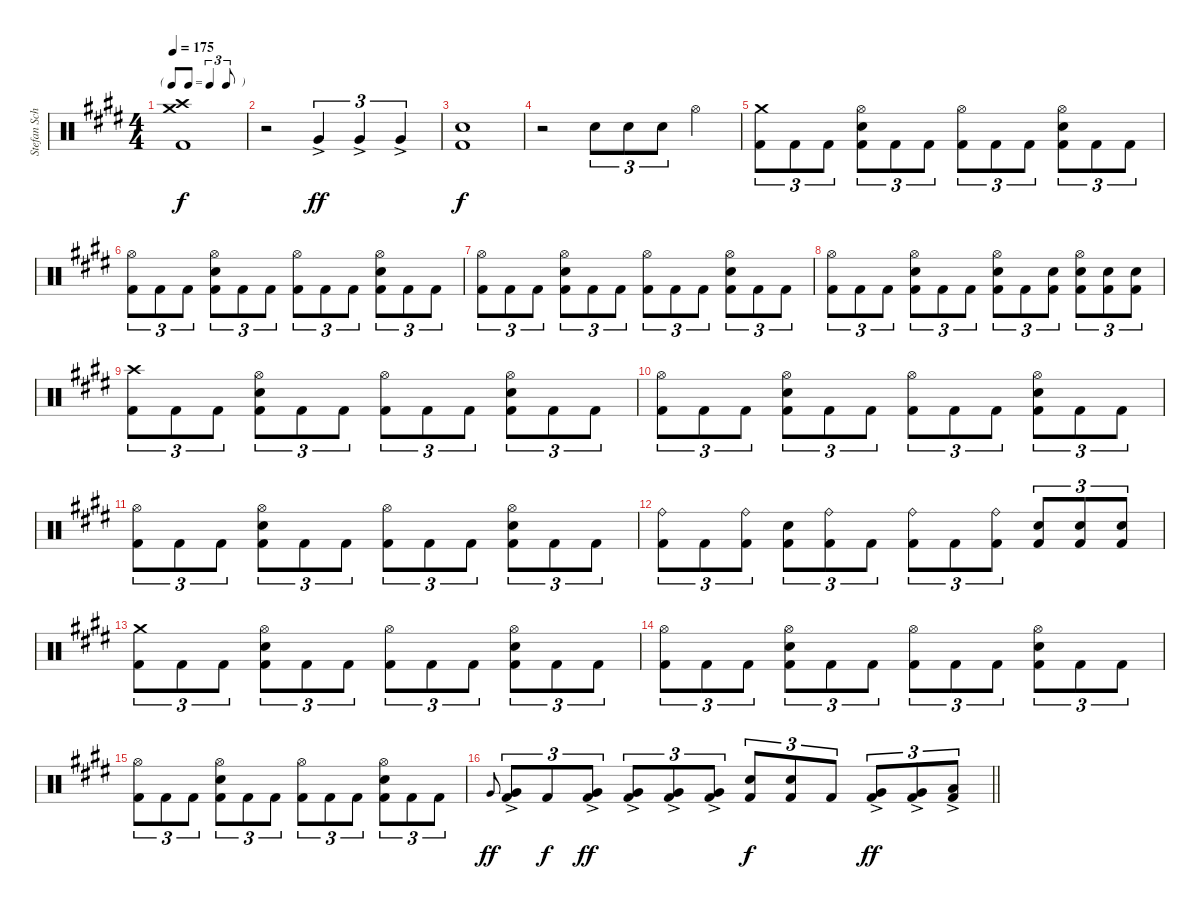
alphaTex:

\track ("Stefan Schwarzmann" "Stefan Sch") {instrument percussion}
\staff {score}
\articulation defaults
\ts (4 4)
\tf triplet8th
\tempo 175
\clef neutral
\ks c#minor
("Crash high (hit)" "Crash medium (hit)" "Kick (hit) 2").1{dy f} |
r.2 "Very Low Tom (hit)"{ac}.4{tu (3 2) dy ff} "Very Low Tom (hit)"{ac}.4{tu (3 2)} "Very Low Tom (hit)"{ac}.4{tu (3 2)} |
("Snare (hit) 2" "Kick (hit) 2").1{dy f} |
r.2 "Snare (hit) 2".8{tu (3 2)} "Snare (hit) 2".8{tu (3 2)} "Snare (hit) 2".8{tu (3 2)} "Hi-Hat (open)".4 |
("Crash medium (hit)" "Kick (hit) 2").8{tu (3 2)} "Kick (hit) 2".8{tu (3 2)} "Kick (hit) 2".8{tu (3 2)} ("Hi-Hat (open)" "Snare (hit) 2" "Kick (hit) 2").8{tu (3 2)} "Kick (hit) 2".8{tu (3 2)} "Kick (hit) 2".8{tu (3 2)} ("Hi-Hat (open)" "Kick (hit) 2").8{tu (3 2)} "Kick (hit) 2".8{tu (3 2)} "Kick (hit) 2".8{tu (3 2)} ("Hi-Hat (open)" "Snare (hit) 2" "Kick (hit) 2").8{tu (3 2)} "Kick (hit) 2".8{tu (3 2)} "Kick (hit) 2".8{tu (3 2)} |
("Hi-Hat (open)" "Kick (hit) 2").8{tu (3 2)} "Kick (hit) 2".8{tu (3 2)} "Kick (hit) 2".8{tu (3 2)} ("Hi-Hat (open)" "Snare (hit) 2" "Kick (hit) 2").8{tu (3 2)} "Kick (hit) 2".8{tu (3 2)} "Kick (hit) 2".8{tu (3 2)} ("Hi-Hat (open)" "Kick (hit) 2").8{tu (3 2)} "Kick (hit) 2".8{tu (3 2)} "Kick (hit) 2".8{tu (3 2)} ("Hi-Hat (open)" "Snare (hit) 2" "Kick (hit) 2").8{tu (3 2)} "Kick (hit) 2".8{tu (3 2)} "Kick (hit) 2".8{tu (3 2)} |
("Hi-Hat (open)" "Kick (hit) 2").8{tu (3 2)} "Kick (hit) 2".8{tu (3 2)} "Kick (hit) 2".8{tu (3 2)} ("Hi-Hat (open)" "Snare (hit) 2" "Kick (hit) 2").8{tu (3 2)} "Kick (hit) 2".8{tu (3 2)} "Kick (hit) 2".8{tu (3 2)} ("Hi-Hat (open)" "Kick (hit) 2").8{tu (3 2)} "Kick (hit) 2".8{tu (3 2)} "Kick (hit) 2".8{tu (3 2)} ("Hi-Hat (open)" "Snare (hit) 2" "Kick (hit) 2").8{tu (3 2)} "Kick (hit) 2".8{tu (3 2)} "Kick (hit) 2".8{tu (3 2)} |
("Hi-Hat (open)" "Kick (hit) 2").8{tu (3 2)} "Kick (hit) 2".8{tu (3 2)} "Kick (hit) 2".8{tu (3 2)} ("Hi-Hat (open)" "Snare (hit) 2" "Kick (hit) 2").8{tu (3 2)} "Kick (hit) 2".8{tu (3 2)} "Kick (hit) 2".8{tu (3 2)} ("Hi-Hat (open)" "Snare (hit) 2" "Kick (hit) 2").8{tu (3 2)} "Kick (hit) 2".8{tu (3 2)} ("Snare (hit) 2" "Kick (hit) 2").8{tu (3 2)} ("Hi-Hat (open)" "Snare (hit) 2" "Kick (hit) 2").8{tu (3 2)} ("Snare (hit) 2" "Kick (hit) 2").8{tu (3 2)} ("Snare (hit) 2" "Kick (hit) 2").8{tu (3 2)} |
("Crash high (hit)" "Kick (hit) 2").8{tu (3 2)} "Kick (hit) 2".8{tu (3 2)} "Kick (hit) 2".8{tu (3 2)} ("Hi-Hat (open)" "Snare (hit) 2" "Kick (hit) 2").8{tu (3 2)} "Kick (hit) 2".8{tu (3 2)} "Kick (hit) 2".8{tu (3 2)} ("Hi-Hat (open)" "Kick (hit) 2").8{tu (3 2)} "Kick (hit) 2".8{tu (3 2)} "Kick (hit) 2".8{tu (3 2)} ("Hi-Hat (open)" "Snare (hit) 2" "Kick (hit) 2").8{tu (3 2)} "Kick (hit) 2".8{tu (3 2)} "Kick (hit) 2".8{tu (3 2)} |
("Hi-Hat (open)" "Kick (hit) 2").8{tu (3 2)} "Kick (hit) 2".8{tu (3 2)} "Kick (hit) 2".8{tu (3 2)} ("Hi-Hat (open)" "Snare (hit) 2" "Kick (hit) 2").8{tu (3 2)} "Kick (hit) 2".8{tu (3 2)} "Kick (hit) 2".8{tu (3 2)} ("Hi-Hat (open)" "Kick (hit) 2").8{tu (3 2)} "Kick (hit) 2".8{tu (3 2)} "Kick (hit) 2".8{tu (3 2)} ("Hi-Hat (open)" "Snare (hit) 2" "Kick (hit) 2").8{tu (3 2)} "Kick (hit) 2".8{tu (3 2)} "Kick (hit) 2".8{tu (3 2)} |
("Hi-Hat (open)" "Kick (hit) 2").8{tu (3 2)} "Kick (hit) 2".8{tu (3 2)} "Kick (hit) 2".8{tu (3 2)} ("Hi-Hat (open)" "Snare (hit) 2" "Kick (hit) 2").8{tu (3 2)} "Kick (hit) 2".8{tu (3 2)} "Kick (hit) 2".8{tu (3 2)} ("Hi-Hat (open)" "Kick (hit) 2").8{tu (3 2)} "Kick (hit) 2".8{tu (3 2)} "Kick (hit) 2".8{tu (3 2)} ("Hi-Hat (open)" "Snare (hit) 2" "Kick (hit) 2").8{tu (3 2)} "Kick (hit) 2".8{tu (3 2)} "Kick (hit) 2".8{tu (3 2)} |
("Ride (bell)" "Kick (hit) 2").8{tu (3 2)} "Kick (hit) 2".8{tu (3 2)} ("Ride (bell)" "Kick (hit) 2").8{tu (3 2)} ("Snare (hit) 2" "Kick (hit) 2").8{tu (3 2)} ("Ride (bell)" "Kick (hit) 2").8{tu (3 2)} "Kick (hit) 2".8{tu (3 2)} ("Ride (bell)" "Kick (hit) 2").8{tu (3 2)} "Kick (hit) 2".8{tu (3 2)} ("Ride (bell)" "Kick (hit) 2").8{tu (3 2)} ("Snare (hit) 2" "Kick (hit) 2").8{tu (3 2)} ("Snare (hit) 2" "Kick (hit) 2").8{tu (3 2)} ("Snare (hit) 2" "Kick (hit) 2").8{tu (3 2)} |
("Crash medium (hit)" "Kick (hit) 2").8{tu (3 2)} "Kick (hit) 2".8{tu (3 2)} "Kick (hit) 2".8{tu (3 2)} ("Hi-Hat (open)" "Snare (hit) 2" "Kick (hit) 2").8{tu (3 2)} "Kick (hit) 2".8{tu (3 2)} "Kick (hit) 2".8{tu (3 2)} ("Hi-Hat (open)" "Kick (hit) 2").8{tu (3 2)} "Kick (hit) 2".8{tu (3 2)} "Kick (hit) 2".8{tu (3 2)} ("Hi-Hat (open)" "Snare (hit) 2" "Kick (hit) 2").8{tu (3 2)} "Kick (hit) 2".8{tu (3 2)} "Kick (hit) 2".8{tu (3 2)} |
("Hi-Hat (open)" "Kick (hit) 2").8{tu (3 2)} "Kick (hit) 2".8{tu (3 2)} "Kick (hit) 2".8{tu (3 2)} ("Hi-Hat (open)" "Snare (hit) 2" "Kick (hit) 2").8{tu (3 2)} "Kick (hit) 2".8{tu (3 2)} "Kick (hit) 2".8{tu (3 2)} ("Hi-Hat (open)" "Kick (hit) 2").8{tu (3 2)} "Kick (hit) 2".8{tu (3 2)} "Kick (hit) 2".8{tu (3 2)} ("Hi-Hat (open)" "Snare (hit) 2" "Kick (hit) 2").8{tu (3 2)} "Kick (hit) 2".8{tu (3 2)} "Kick (hit) 2".8{tu (3 2)} |
("Hi-Hat (open)" "Kick (hit) 2").8{tu (3 2)} "Kick (hit) 2".8{tu (3 2)} "Kick (hit) 2".8{tu (3 2)} ("Hi-Hat (open)" "Snare (hit) 2" "Kick (hit) 2").8{tu (3 2)} "Kick (hit) 2".8{tu (3 2)} "Kick (hit) 2".8{tu (3 2)} ("Hi-Hat (open)" "Kick (hit) 2").8{tu (3 2)} "Kick (hit) 2".8{tu (3 2)} "Kick (hit) 2".8{tu (3 2)} ("Hi-Hat (open)" "Snare (hit) 2" "Kick (hit) 2").8{tu (3 2)} "Kick (hit) 2".8{tu (3 2)} "Kick (hit) 2".8{tu (3 2)} |
\barLineRight lightlight "Very Low Tom (hit)".8{gr onbeat dy ff}
("Very Low Tom (hit)"{ac} "Kick (hit) 2").8{tu (3 2)} "Kick (hit) 2".8{tu (3 2) dy f} ("Very Low Tom (hit)"{ac} "Kick (hit) 2").8{tu (3 2) dy ff} ("Very Low Tom (hit)"{ac} "Kick (hit) 2").8{tu (3 2)} ("Very Low Tom (hit)"{ac} "Kick (hit) 2").8{tu (3 2)} ("Very Low Tom (hit)"{ac} "Kick (hit) 2").8{tu (3 2)} ("Snare (hit) 2" "Kick (hit) 2").8{tu (3 2) dy f} ("Snare (hit) 2" "Kick (hit) 2").8{tu (3 2)} "Kick (hit) 2".8{tu (3 2)} ("Very Low Tom (hit)"{ac} "Kick (hit) 2").8{tu (3 2) dy ff} ("Very Low Tom (hit)"{ac} "Kick (hit) 2").8{tu (3 2)} ("Low Floor Tom (hit)"{ac} "Kick (hit) 2").8{tu (3 2)}
